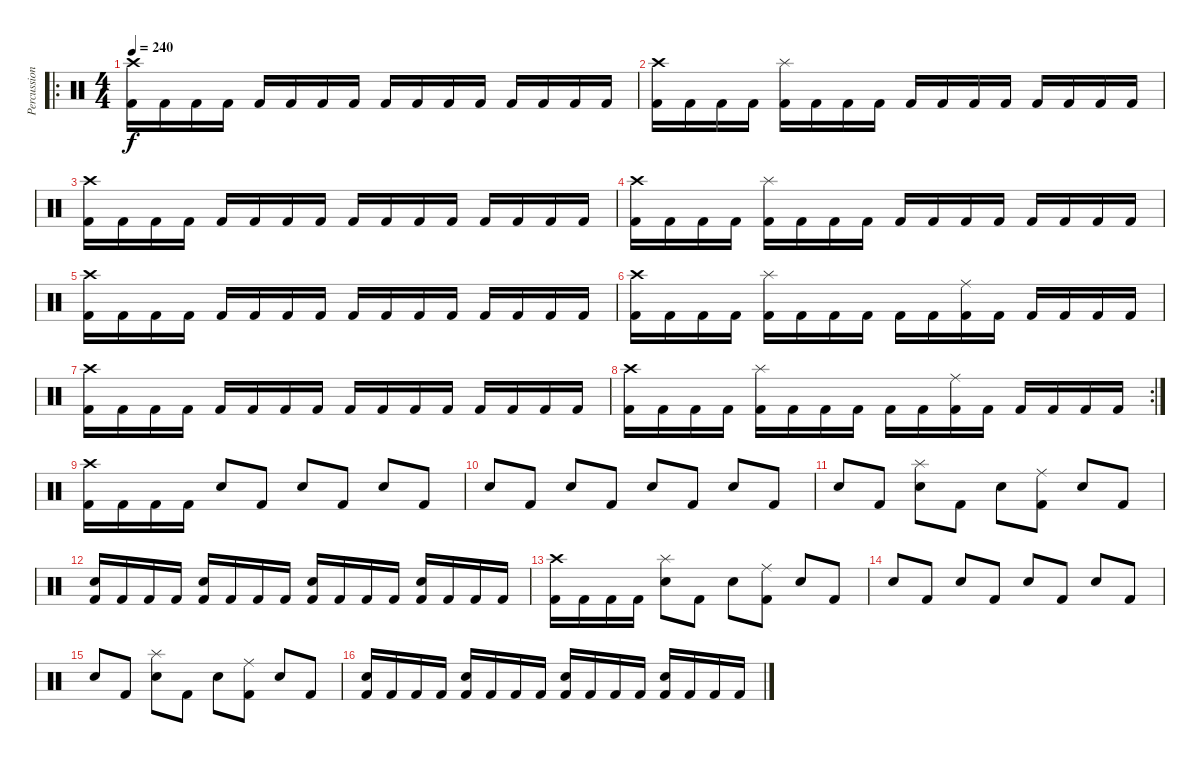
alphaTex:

\track ("Percussion" "Percussion") {instrument percussion}
\staff {score}
\articulation defaults
\ro
\ts (4 4)
\tempo 240
\clef neutral
\ks c
("Kick (hit) 2" "Crash high (hit)").16{dy f} "Kick (hit) 2".16 "Kick (hit) 2".16 "Kick (hit) 2".16 "Kick (hit) 2".16 "Kick (hit) 2".16 "Kick (hit) 2".16 "Kick (hit) 2".16 "Kick (hit) 2".16 "Kick (hit) 2".16 "Kick (hit) 2".16 "Kick (hit) 2".16 "Kick (hit) 2".16 "Kick (hit) 2".16 "Kick (hit) 2".16 "Kick (hit) 2".16 |
("Kick (hit) 2" "Crash high (hit)").16 "Kick (hit) 2".16 "Kick (hit) 2".16 "Kick (hit) 2".16 ("Kick (hit) 2" "Splash (hit)").16 "Kick (hit) 2".16 "Kick (hit) 2".16 "Kick (hit) 2".16 "Kick (hit) 2".16 "Kick (hit) 2".16 "Kick (hit) 2".16 "Kick (hit) 2".16 "Kick (hit) 2".16 "Kick (hit) 2".16 "Kick (hit) 2".16 "Kick (hit) 2".16 |
("Kick (hit) 2" "Crash high (hit)").16 "Kick (hit) 2".16 "Kick (hit) 2".16 "Kick (hit) 2".16 "Kick (hit) 2".16 "Kick (hit) 2".16 "Kick (hit) 2".16 "Kick (hit) 2".16 "Kick (hit) 2".16 "Kick (hit) 2".16 "Kick (hit) 2".16 "Kick (hit) 2".16 "Kick (hit) 2".16 "Kick (hit) 2".16 "Kick (hit) 2".16 "Kick (hit) 2".16 |
("Kick (hit) 2" "Crash high (hit)").16 "Kick (hit) 2".16 "Kick (hit) 2".16 "Kick (hit) 2".16 ("Kick (hit) 2" "Splash (hit)").16 "Kick (hit) 2".16 "Kick (hit) 2".16 "Kick (hit) 2".16 "Kick (hit) 2".16 "Kick (hit) 2".16 "Kick (hit) 2".16 "Kick (hit) 2".16 "Kick (hit) 2".16 "Kick (hit) 2".16 "Kick (hit) 2".16 "Kick (hit) 2".16 |
("Kick (hit) 2" "Crash high (hit)").16 "Kick (hit) 2".16 "Kick (hit) 2".16 "Kick (hit) 2".16 "Kick (hit) 2".16 "Kick (hit) 2".16 "Kick (hit) 2".16 "Kick (hit) 2".16 "Kick (hit) 2".16 "Kick (hit) 2".16 "Kick (hit) 2".16 "Kick (hit) 2".16 "Kick (hit) 2".16 "Kick (hit) 2".16 "Kick (hit) 2".16 "Kick (hit) 2".16 |
("Kick (hit) 2" "Crash high (hit)").16 "Kick (hit) 2".16 "Kick (hit) 2".16 "Kick (hit) 2".16 ("Kick (hit) 2" "Splash (hit)").16 "Kick (hit) 2".16 "Kick (hit) 2".16 "Kick (hit) 2".16 "Kick (hit) 2".16 "Kick (hit) 2".16 ("Kick (hit) 2" "Ride (middle)").16 "Kick (hit) 2".16 "Kick (hit) 2".16 "Kick (hit) 2".16 "Kick (hit) 2".16 "Kick (hit) 2".16 |
("Kick (hit) 2" "Crash high (hit)").16 "Kick (hit) 2".16 "Kick (hit) 2".16 "Kick (hit) 2".16 "Kick (hit) 2".16 "Kick (hit) 2".16 "Kick (hit) 2".16 "Kick (hit) 2".16 "Kick (hit) 2".16 "Kick (hit) 2".16 "Kick (hit) 2".16 "Kick (hit) 2".16 "Kick (hit) 2".16 "Kick (hit) 2".16 "Kick (hit) 2".16 "Kick (hit) 2".16 |
\rc 2
("Kick (hit) 2" "Crash high (hit)").16 "Kick (hit) 2".16 "Kick (hit) 2".16 "Kick (hit) 2".16 ("Kick (hit) 2" "Splash (hit)").16 "Kick (hit) 2".16 "Kick (hit) 2".16 "Kick (hit) 2".16 "Kick (hit) 2".16 "Kick (hit) 2".16 ("Kick (hit) 2" "Ride (middle)").16 "Kick (hit) 2".16 "Kick (hit) 2".16 "Kick (hit) 2".16 "Kick (hit) 2".16 "Kick (hit) 2".16 |
("Kick (hit) 2" "Crash high (hit)").16 "Kick (hit) 2".16 "Kick (hit) 2".16 "Kick (hit) 2".16 "Electric Snare (hit)".8 "Kick (hit) 2".8 "Electric Snare (hit)".8 "Kick (hit) 2".8 "Electric Snare (hit)".8 "Kick (hit) 2".8 |
"Electric Snare (hit)".8 "Kick (hit) 2".8 "Electric Snare (hit)".8 "Kick (hit) 2".8 "Electric Snare (hit)".8 "Kick (hit) 2".8 "Electric Snare (hit)".8 "Kick (hit) 2".8 |
"Electric Snare (hit)".8 "Kick (hit) 2".8 ("Electric Snare (hit)" "Splash (hit)").8 "Kick (hit) 2".8 "Electric Snare (hit)".8 ("Kick (hit) 2" "Ride (middle)").8 "Electric Snare (hit)".8 "Kick (hit) 2".8 |
("Kick (hit) 2" "Electric Snare (hit)").16 "Kick (hit) 2".16 "Kick (hit) 2".16 "Kick (hit) 2".16 ("Kick (hit) 2" "Electric Snare (hit)").16 "Kick (hit) 2".16 "Kick (hit) 2".16 "Kick (hit) 2".16 ("Kick (hit) 2" "Electric Snare (hit)").16 "Kick (hit) 2".16 "Kick (hit) 2".16 "Kick (hit) 2".16 ("Kick (hit) 2" "Electric Snare (hit)").16 "Kick (hit) 2".16 "Kick (hit) 2".16 "Kick (hit) 2".16 |
("Kick (hit) 2" "Crash high (hit)").16 "Kick (hit) 2".16 "Kick (hit) 2".16 "Kick (hit) 2".16 ("Electric Snare (hit)" "Splash (hit)").8 "Kick (hit) 2".8 "Electric Snare (hit)".8 ("Kick (hit) 2" "Ride (middle)").8 "Electric Snare (hit)".8 "Kick (hit) 2".8 |
"Electric Snare (hit)".8 "Kick (hit) 2".8 "Electric Snare (hit)".8 "Kick (hit) 2".8 "Electric Snare (hit)".8 "Kick (hit) 2".8 "Electric Snare (hit)".8 "Kick (hit) 2".8 |
"Electric Snare (hit)".8 "Kick (hit) 2".8 ("Electric Snare (hit)" "Splash (hit)").8 "Kick (hit) 2".8 "Electric Snare (hit)".8 ("Kick (hit) 2" "Ride (middle)").8 "Electric Snare (hit)".8 "Kick (hit) 2".8 |
("Kick (hit) 2" "Electric Snare (hit)").16 "Kick (hit) 2".16 "Kick (hit) 2".16 "Kick (hit) 2".16 ("Kick (hit) 2" "Electric Snare (hit)").16 "Kick (hit) 2".16 "Kick (hit) 2".16 "Kick (hit) 2".16 ("Kick (hit) 2" "Electric Snare (hit)").16 "Kick (hit) 2".16 "Kick (hit) 2".16 "Kick (hit) 2".16 ("Kick (hit) 2" "Electric Snare (hit)").16 "Kick (hit) 2".16 "Kick (hit) 2".16 "Kick (hit) 2".16
